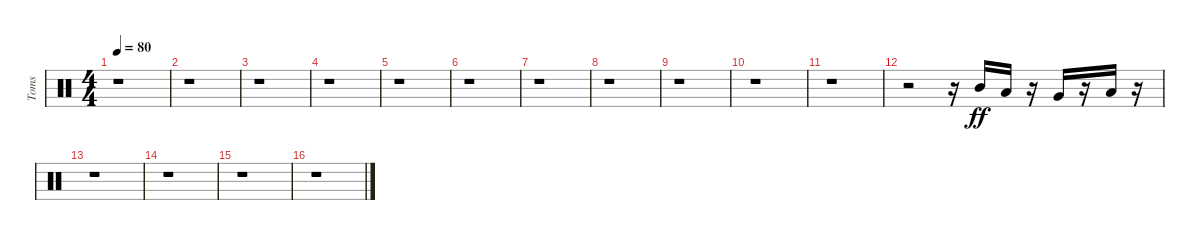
\track ("Toms" "Toms") {instrument percussion}
\staff {score}
\articulation defaults
\ts (4 4)
\tempo 80
\clef neutral
\ks c
r.1{dy ff} |
r.1 |
r.1 |
r.1 |
r.1 |
r.1 |
r.1 |
r.1 |
r.1 |
r.1 |
r.1 |
r.2 r.16 "Mid Tom (hit)".16 "Low Tom (hit)".16 r.16 "Very Low Tom (hit)".16 r.16 "Low Floor Tom (hit)".16 r.16 |
r.1 |
r.1 |
r.1 |
r.1
